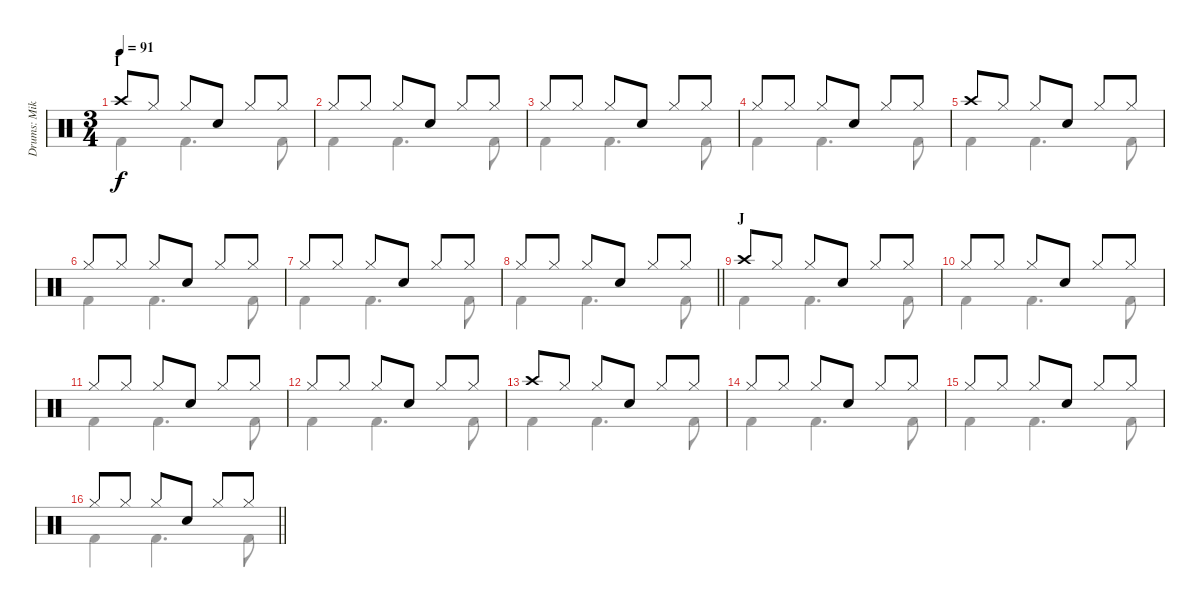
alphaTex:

\track ("Drums: Mike" "Drums: Mik") {instrument percussion}
\staff {score}
\articulation defaults
\voice
\ts (3 4)
\section ("" "I")
\tempo 91
\clef neutral
\ks c "Crash high (hit)".8{dy f} "Hi-Hat (closed)".8 "Hi-Hat (closed)".8 "Snare (hit) 2".8 "Hi-Hat (closed)".8 "Hi-Hat (closed)".8
|
"Hi-Hat (closed)".8 "Hi-Hat (closed)".8 "Hi-Hat (closed)".8 "Snare (hit) 2".8 "Hi-Hat (closed)".8 "Hi-Hat (closed)".8 |
"Hi-Hat (closed)".8 "Hi-Hat (closed)".8 "Hi-Hat (closed)".8 "Snare (hit) 2".8 "Hi-Hat (closed)".8 "Hi-Hat (closed)".8 |
"Hi-Hat (closed)".8 "Hi-Hat (closed)".8 "Hi-Hat (closed)".8 "Snare (hit) 2".8 "Hi-Hat (closed)".8 "Hi-Hat (closed)".8 |
"Crash high (hit)".8 "Hi-Hat (closed)".8 "Hi-Hat (closed)".8 "Snare (hit) 2".8 "Hi-Hat (closed)".8 "Hi-Hat (closed)".8 |
"Hi-Hat (closed)".8 "Hi-Hat (closed)".8 "Hi-Hat (closed)".8 "Snare (hit) 2".8 "Hi-Hat (closed)".8 "Hi-Hat (closed)".8 |
"Hi-Hat (closed)".8 "Hi-Hat (closed)".8 "Hi-Hat (closed)".8 "Snare (hit) 2".8 "Hi-Hat (closed)".8 "Hi-Hat (closed)".8 |
\barLineRight lightlight "Hi-Hat (closed)".8 "Hi-Hat (closed)".8 "Hi-Hat (closed)".8 "Snare (hit) 2".8 "Hi-Hat (closed)".8 "Hi-Hat (closed)".8
|
\section ("" "J")
"Crash high (hit)".8 "Hi-Hat (closed)".8 "Hi-Hat (closed)".8 "Snare (hit) 2".8 "Hi-Hat (closed)".8 "Hi-Hat (closed)".8 |
"Hi-Hat (closed)".8 "Hi-Hat (closed)".8 "Hi-Hat (closed)".8 "Snare (hit) 2".8 "Hi-Hat (closed)".8 "Hi-Hat (closed)".8 |
"Hi-Hat (closed)".8 "Hi-Hat (closed)".8 "Hi-Hat (closed)".8 "Snare (hit) 2".8 "Hi-Hat (closed)".8 "Hi-Hat (closed)".8 |
"Hi-Hat (closed)".8 "Hi-Hat (closed)".8 "Hi-Hat (closed)".8 "Snare (hit) 2".8 "Hi-Hat (closed)".8 "Hi-Hat (closed)".8 |
"Crash high (hit)".8 "Hi-Hat (closed)".8 "Hi-Hat (closed)".8 "Snare (hit) 2".8 "Hi-Hat (closed)".8 "Hi-Hat (closed)".8 |
"Hi-Hat (closed)".8 "Hi-Hat (closed)".8 "Hi-Hat (closed)".8 "Snare (hit) 2".8 "Hi-Hat (closed)".8 "Hi-Hat (closed)".8 |
"Hi-Hat (closed)".8 "Hi-Hat (closed)".8 "Hi-Hat (closed)".8 "Snare (hit) 2".8 "Hi-Hat (closed)".8 "Hi-Hat (closed)".8 |
\barLineRight lightlight "Hi-Hat (closed)".8 "Hi-Hat (closed)".8 "Hi-Hat (closed)".8 "Snare (hit) 2".8 "Hi-Hat (closed)".8 "Hi-Hat (closed)".8
\voice
\clef neutral
\ottava regular
\simile none
\ks c "Kick (hit) 2".4{dy f} "Kick (hit) 2".4{d} "Kick (hit) 2".8
|
"Kick (hit) 2".4 "Kick (hit) 2".4{d} "Kick (hit) 2".8 |
"Kick (hit) 2".4 "Kick (hit) 2".4{d} "Kick (hit) 2".8 |
"Kick (hit) 2".4 "Kick (hit) 2".4{d} "Kick (hit) 2".8 |
"Kick (hit) 2".4 "Kick (hit) 2".4{d} "Kick (hit) 2".8 |
"Kick (hit) 2".4 "Kick (hit) 2".4{d} "Kick (hit) 2".8 |
"Kick (hit) 2".4 "Kick (hit) 2".4{d} "Kick (hit) 2".8 |
\barLineRight lightlight "Kick (hit) 2".4 "Kick (hit) 2".4{d} "Kick (hit) 2".8
|
"Kick (hit) 2".4 "Kick (hit) 2".4{d} "Kick (hit) 2".8 |
"Kick (hit) 2".4 "Kick (hit) 2".4{d} "Kick (hit) 2".8 |
"Kick (hit) 2".4 "Kick (hit) 2".4{d} "Kick (hit) 2".8 |
"Kick (hit) 2".4 "Kick (hit) 2".4{d} "Kick (hit) 2".8 |
"Kick (hit) 2".4 "Kick (hit) 2".4{d} "Kick (hit) 2".8 |
"Kick (hit) 2".4 "Kick (hit) 2".4{d} "Kick (hit) 2".8 |
"Kick (hit) 2".4 "Kick (hit) 2".4{d} "Kick (hit) 2".8 |
\barLineRight lightlight "Kick (hit) 2".4 "Kick (hit) 2".4{d} "Kick (hit) 2".8
